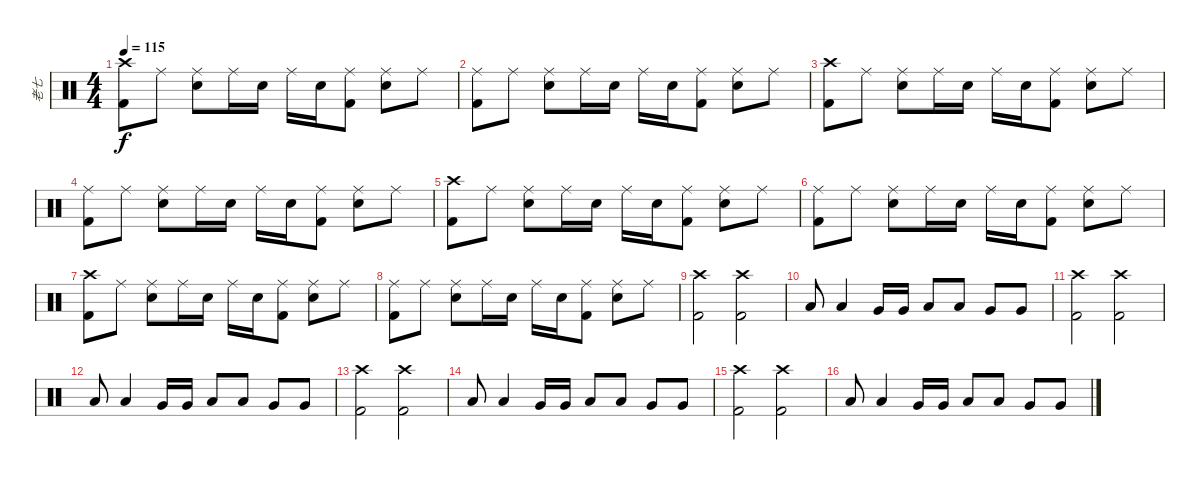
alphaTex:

\track ("老七" "老七") {instrument percussion}
\staff {score}
\articulation defaults
\ts (4 4)
\tempo 115
\clef neutral
\ks c
("Crash high (hit)" "Kick (hit) 2").8{dy f} "Ride (middle)".8 ("Ride (middle)" "Electric Snare (hit)").8 "Ride (middle)".16 "Electric Snare (hit)".16 "Ride (middle)".16 "Electric Snare (hit)".16 ("Ride (middle)" "Kick (hit) 2").8 ("Ride (middle)" "Electric Snare (hit)").8 "Ride (middle)".8 |
("Ride (middle)" "Kick (hit) 2").8 "Ride (middle)".8 ("Ride (middle)" "Electric Snare (hit)").8 "Ride (middle)".16 "Electric Snare (hit)".16 "Ride (middle)".16 "Electric Snare (hit)".16 ("Ride (middle)" "Kick (hit) 2").8 ("Ride (middle)" "Electric Snare (hit)").8 "Ride (middle)".8 |
("Crash high (hit)" "Kick (hit) 2").8 "Ride (middle)".8 ("Ride (middle)" "Electric Snare (hit)").8 "Ride (middle)".16 "Electric Snare (hit)".16 "Ride (middle)".16 "Electric Snare (hit)".16 ("Ride (middle)" "Kick (hit) 2").8 ("Ride (middle)" "Electric Snare (hit)").8 "Ride (middle)".8 |
("Ride (middle)" "Kick (hit) 2").8 "Ride (middle)".8 ("Ride (middle)" "Electric Snare (hit)").8 "Ride (middle)".16 "Electric Snare (hit)".16 "Ride (middle)".16 "Electric Snare (hit)".16 ("Ride (middle)" "Kick (hit) 2").8 ("Ride (middle)" "Electric Snare (hit)").8 "Ride (middle)".8 |
("Crash high (hit)" "Kick (hit) 2").8 "Ride (middle)".8 ("Ride (middle)" "Electric Snare (hit)").8 "Ride (middle)".16 "Electric Snare (hit)".16 "Ride (middle)".16 "Electric Snare (hit)".16 ("Ride (middle)" "Kick (hit) 2").8 ("Ride (middle)" "Electric Snare (hit)").8 "Ride (middle)".8 |
("Ride (middle)" "Kick (hit) 2").8 "Ride (middle)".8 ("Ride (middle)" "Electric Snare (hit)").8 "Ride (middle)".16 "Electric Snare (hit)".16 "Ride (middle)".16 "Electric Snare (hit)".16 ("Ride (middle)" "Kick (hit) 2").8 ("Ride (middle)" "Electric Snare (hit)").8 "Ride (middle)".8 |
("Crash high (hit)" "Kick (hit) 2").8 "Ride (middle)".8 ("Ride (middle)" "Electric Snare (hit)").8 "Ride (middle)".16 "Electric Snare (hit)".16 "Ride (middle)".16 "Electric Snare (hit)".16 ("Ride (middle)" "Kick (hit) 2").8 ("Ride (middle)" "Electric Snare (hit)").8 "Ride (middle)".8 |
("Ride (middle)" "Kick (hit) 2").8 "Ride (middle)".8 ("Ride (middle)" "Electric Snare (hit)").8 "Ride (middle)".16 "Electric Snare (hit)".16 "Ride (middle)".16 "Electric Snare (hit)".16 ("Ride (middle)" "Kick (hit) 2").8 ("Ride (middle)" "Electric Snare (hit)").8 "Ride (middle)".8 |
("Crash high (hit)" "Kick (hit) 2").2 ("Crash high (hit)" "Kick (hit) 2").2 |
"Low Tom (hit)".8 "Low Tom (hit)".4 "Very Low Tom (hit)".16 "Very Low Tom (hit)".16 "Low Tom (hit)".8 "Low Tom (hit)".8 "Very Low Tom (hit)".8 "Very Low Tom (hit)".8 |
("Crash high (hit)" "Kick (hit) 2").2 ("Crash high (hit)" "Kick (hit) 2").2 |
"Low Tom (hit)".8 "Low Tom (hit)".4 "Very Low Tom (hit)".16 "Very Low Tom (hit)".16 "Low Tom (hit)".8 "Low Tom (hit)".8 "Very Low Tom (hit)".8 "Very Low Tom (hit)".8 |
("Crash high (hit)" "Kick (hit) 2").2 ("Crash high (hit)" "Kick (hit) 2").2 |
"Low Tom (hit)".8 "Low Tom (hit)".4 "Very Low Tom (hit)".16 "Very Low Tom (hit)".16 "Low Tom (hit)".8 "Low Tom (hit)".8 "Very Low Tom (hit)".8 "Very Low Tom (hit)".8 |
("Crash high (hit)" "Kick (hit) 2").2 ("Crash high (hit)" "Kick (hit) 2").2 |
"Low Tom (hit)".8 "Low Tom (hit)".4 "Very Low Tom (hit)".16 "Very Low Tom (hit)".16 "Low Tom (hit)".8 "Low Tom (hit)".8 "Very Low Tom (hit)".8 "Very Low Tom (hit)".8
